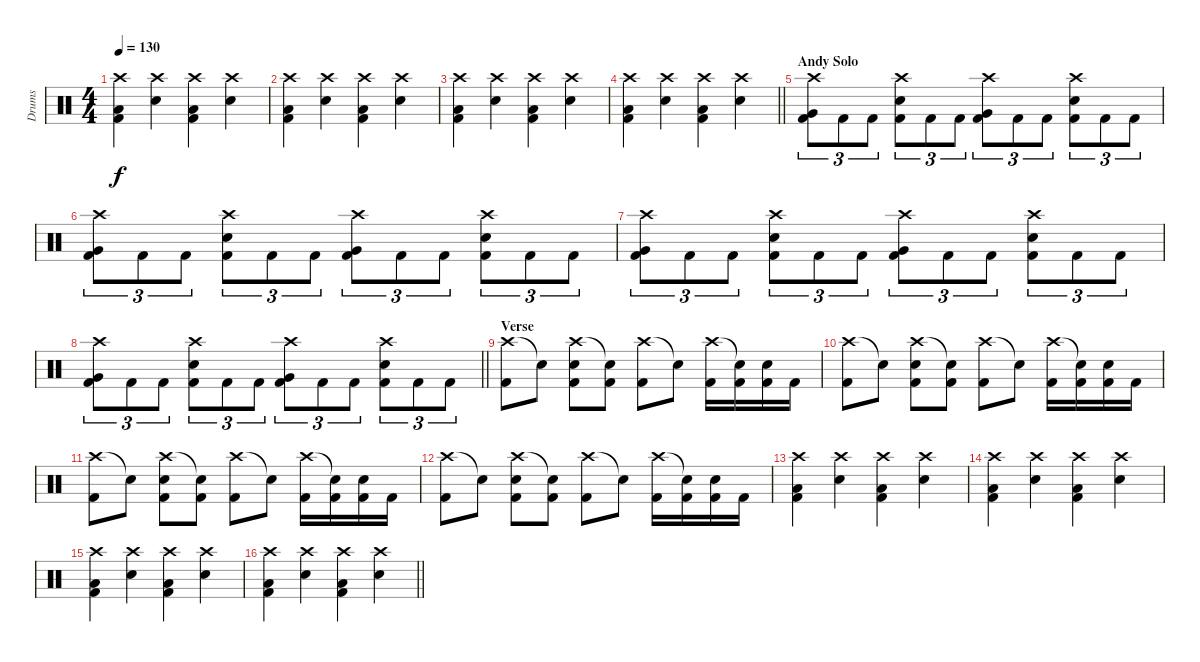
\track ("Drums" "Drums") {instrument percussion}
\staff {score}
\articulation defaults
\ts (4 4)
\tempo 130
\clef neutral
\ks c
("Crash high (hit)" "Low Floor Tom (hit)" "Kick (hit) 2").4{dy f} ("Crash high (hit)" "Snare (hit) 2").4 ("Crash high (hit)" "Low Floor Tom (hit)" "Kick (hit) 2").4 ("Crash high (hit)" "Snare (hit) 2").4 |
("Crash high (hit)" "Low Floor Tom (hit)" "Kick (hit) 2").4 ("Crash high (hit)" "Snare (hit) 2").4 ("Crash high (hit)" "Low Floor Tom (hit)" "Kick (hit) 2").4 ("Crash high (hit)" "Snare (hit) 2").4 |
("Crash high (hit)" "Low Floor Tom (hit)" "Kick (hit) 2").4 ("Crash high (hit)" "Snare (hit) 2").4 ("Crash high (hit)" "Low Floor Tom (hit)" "Kick (hit) 2").4 ("Crash high (hit)" "Snare (hit) 2").4 |
\barLineRight lightlight
("Crash high (hit)" "Low Floor Tom (hit)" "Kick (hit) 2").4 ("Crash high (hit)" "Snare (hit) 2").4 ("Crash high (hit)" "Low Floor Tom (hit)" "Kick (hit) 2").4 ("Crash high (hit)" "Snare (hit) 2").4 |
\section ("" "Andy Solo")
("Very Low Tom (hit)" "Crash high (hit)" "Kick (hit) 2").8{tu (3 2)} "Kick (hit) 2".8{tu (3 2)} "Kick (hit) 2".8{tu (3 2)} ("Snare (hit) 2" "Crash high (hit)" "Kick (hit) 2").8{tu (3 2)} "Kick (hit) 2".8{tu (3 2)} "Kick (hit) 2".8{tu (3 2)} ("Very Low Tom (hit)" "Crash high (hit)" "Kick (hit) 2").8{tu (3 2)} "Kick (hit) 2".8{tu (3 2)} "Kick (hit) 2".8{tu (3 2)} ("Snare (hit) 2" "Crash high (hit)" "Kick (hit) 2").8{tu (3 2)} "Kick (hit) 2".8{tu (3 2)} "Kick (hit) 2".8{tu (3 2)} |
("Very Low Tom (hit)" "Crash high (hit)" "Kick (hit) 2").8{tu (3 2)} "Kick (hit) 2".8{tu (3 2)} "Kick (hit) 2".8{tu (3 2)} ("Snare (hit) 2" "Crash high (hit)" "Kick (hit) 2").8{tu (3 2)} "Kick (hit) 2".8{tu (3 2)} "Kick (hit) 2".8{tu (3 2)} ("Very Low Tom (hit)" "Crash high (hit)" "Kick (hit) 2").8{tu (3 2)} "Kick (hit) 2".8{tu (3 2)} "Kick (hit) 2".8{tu (3 2)} ("Snare (hit) 2" "Crash high (hit)" "Kick (hit) 2").8{tu (3 2)} "Kick (hit) 2".8{tu (3 2)} "Kick (hit) 2".8{tu (3 2)} |
("Very Low Tom (hit)" "Crash high (hit)" "Kick (hit) 2").8{tu (3 2)} "Kick (hit) 2".8{tu (3 2)} "Kick (hit) 2".8{tu (3 2)} ("Snare (hit) 2" "Crash high (hit)" "Kick (hit) 2").8{tu (3 2)} "Kick (hit) 2".8{tu (3 2)} "Kick (hit) 2".8{tu (3 2)} ("Very Low Tom (hit)" "Crash high (hit)" "Kick (hit) 2").8{tu (3 2)} "Kick (hit) 2".8{tu (3 2)} "Kick (hit) 2".8{tu (3 2)} ("Snare (hit) 2" "Crash high (hit)" "Kick (hit) 2").8{tu (3 2)} "Kick (hit) 2".8{tu (3 2)} "Kick (hit) 2".8{tu (3 2)} |
\barLineRight lightlight
("Very Low Tom (hit)" "Crash high (hit)" "Kick (hit) 2").8{tu (3 2)} "Kick (hit) 2".8{tu (3 2)} "Kick (hit) 2".8{tu (3 2)} ("Snare (hit) 2" "Crash high (hit)" "Kick (hit) 2").8{tu (3 2)} "Kick (hit) 2".8{tu (3 2)} "Kick (hit) 2".8{tu (3 2)} ("Very Low Tom (hit)" "Crash high (hit)" "Kick (hit) 2").8{tu (3 2)} "Kick (hit) 2".8{tu (3 2)} "Kick (hit) 2".8{tu (3 2)} ("Snare (hit) 2" "Crash high (hit)" "Kick (hit) 2").8{tu (3 2)} "Kick (hit) 2".8{tu (3 2)} "Kick (hit) 2".8{tu (3 2)} |
\section ("" "Verse")
("Crash high (hit)" "Kick (hit) 2").8 "Snare (hit)"{t}.8 ("Crash high (hit)" "Snare (hit) 2" "Kick (hit) 2").8 ("Snare (hit)"{t} "Kick (hit) 2").8 ("Crash high (hit)" "Kick (hit) 2").8 "Snare (hit)"{t}.8 ("Crash high (hit)" "Kick (hit) 2").16 ("Snare (hit)"{t} "Kick (hit) 2").16 ("Snare (hit) 2" "Kick (hit) 2").16 "Kick (hit) 2".16 |
("Crash high (hit)" "Kick (hit) 2").8 "Snare (hit)"{t}.8 ("Crash high (hit)" "Snare (hit) 2" "Kick (hit) 2").8 ("Snare (hit)"{t} "Kick (hit) 2").8 ("Crash high (hit)" "Kick (hit) 2").8 "Snare (hit)"{t}.8 ("Crash high (hit)" "Kick (hit) 2").16 ("Snare (hit)"{t} "Kick (hit) 2").16 ("Snare (hit) 2" "Kick (hit) 2").16 "Kick (hit) 2".16 |
("Crash high (hit)" "Kick (hit) 2").8 "Snare (hit)"{t}.8 ("Crash high (hit)" "Snare (hit) 2" "Kick (hit) 2").8 ("Snare (hit)"{t} "Kick (hit) 2").8 ("Crash high (hit)" "Kick (hit) 2").8 "Snare (hit)"{t}.8 ("Crash high (hit)" "Kick (hit) 2").16 ("Snare (hit)"{t} "Kick (hit) 2").16 ("Snare (hit) 2" "Kick (hit) 2").16 "Kick (hit) 2".16 |
("Crash high (hit)" "Kick (hit) 2").8 "Snare (hit)"{t}.8 ("Crash high (hit)" "Snare (hit) 2" "Kick (hit) 2").8 ("Snare (hit)"{t} "Kick (hit) 2").8 ("Crash high (hit)" "Kick (hit) 2").8 "Snare (hit)"{t}.8 ("Crash high (hit)" "Kick (hit) 2").16 ("Snare (hit)"{t} "Kick (hit) 2").16 ("Snare (hit) 2" "Kick (hit) 2").16 "Kick (hit) 2".16 |
("Crash high (hit)" "Low Floor Tom (hit)" "Kick (hit) 2").4 ("Crash high (hit)" "Snare (hit) 2").4 ("Crash high (hit)" "Low Floor Tom (hit)" "Kick (hit) 2").4 ("Crash high (hit)" "Snare (hit) 2").4 |
("Crash high (hit)" "Low Floor Tom (hit)" "Kick (hit) 2").4 ("Crash high (hit)" "Snare (hit) 2").4 ("Crash high (hit)" "Low Floor Tom (hit)" "Kick (hit) 2").4 ("Crash high (hit)" "Snare (hit) 2").4 |
("Crash high (hit)" "Low Floor Tom (hit)" "Kick (hit) 2").4 ("Crash high (hit)" "Snare (hit) 2").4 ("Crash high (hit)" "Low Floor Tom (hit)" "Kick (hit) 2").4 ("Crash high (hit)" "Snare (hit) 2").4 |
\barLineRight lightlight
("Crash high (hit)" "Low Floor Tom (hit)" "Kick (hit) 2").4 ("Crash high (hit)" "Snare (hit) 2").4 ("Crash high (hit)" "Low Floor Tom (hit)" "Kick (hit) 2").4 ("Crash high (hit)" "Snare (hit) 2").4
